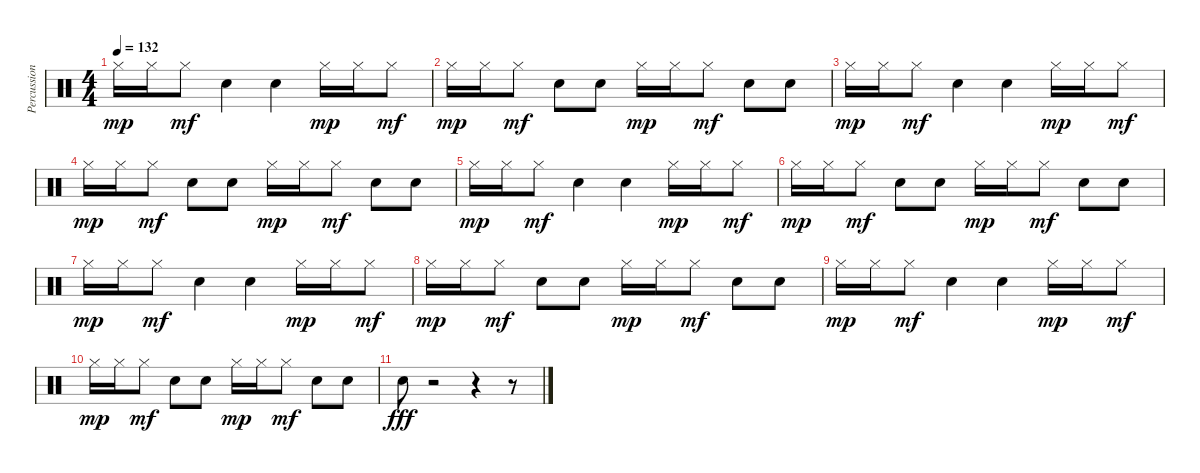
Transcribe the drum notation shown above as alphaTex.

\track ("Percussion" "Percussion") {instrument percussion}
\staff {score}
\articulation defaults
\ts (4 4)
\tempo 132
\clef neutral
\ks c "Hi-Hat (closed)".16{dy mp} "Hi-Hat (closed)".16 "Hi-Hat (closed)".8{dy mf} "Hand Clap (hit)".4 "Hand Clap (hit)".4 "Hi-Hat (closed)".16{dy mp} "Hi-Hat (closed)".16 "Hi-Hat (closed)".8{dy mf}
|
"Hi-Hat (closed)".16{dy mp} "Hi-Hat (closed)".16 "Hi-Hat (closed)".8{dy mf} "Hand Clap (hit)".8 "Hand Clap (hit)".8 "Hi-Hat (closed)".16{dy mp} "Hi-Hat (closed)".16 "Hi-Hat (closed)".8{dy mf} "Hand Clap (hit)".8 "Hand Clap (hit)".8 |
"Hi-Hat (closed)".16{dy mp} "Hi-Hat (closed)".16 "Hi-Hat (closed)".8{dy mf} "Hand Clap (hit)".4 "Hand Clap (hit)".4 "Hi-Hat (closed)".16{dy mp} "Hi-Hat (closed)".16 "Hi-Hat (closed)".8{dy mf} |
"Hi-Hat (closed)".16{dy mp} "Hi-Hat (closed)".16 "Hi-Hat (closed)".8{dy mf} "Hand Clap (hit)".8 "Hand Clap (hit)".8 "Hi-Hat (closed)".16{dy mp} "Hi-Hat (closed)".16 "Hi-Hat (closed)".8{dy mf} "Hand Clap (hit)".8 "Hand Clap (hit)".8 |
"Hi-Hat (closed)".16{dy mp} "Hi-Hat (closed)".16 "Hi-Hat (closed)".8{dy mf} "Hand Clap (hit)".4 "Hand Clap (hit)".4 "Hi-Hat (closed)".16{dy mp} "Hi-Hat (closed)".16 "Hi-Hat (closed)".8{dy mf} |
"Hi-Hat (closed)".16{dy mp} "Hi-Hat (closed)".16 "Hi-Hat (closed)".8{dy mf} "Hand Clap (hit)".8 "Hand Clap (hit)".8 "Hi-Hat (closed)".16{dy mp} "Hi-Hat (closed)".16 "Hi-Hat (closed)".8{dy mf} "Hand Clap (hit)".8 "Hand Clap (hit)".8 |
"Hi-Hat (closed)".16{dy mp} "Hi-Hat (closed)".16 "Hi-Hat (closed)".8{dy mf} "Hand Clap (hit)".4 "Hand Clap (hit)".4 "Hi-Hat (closed)".16{dy mp} "Hi-Hat (closed)".16 "Hi-Hat (closed)".8{dy mf} |
"Hi-Hat (closed)".16{dy mp} "Hi-Hat (closed)".16 "Hi-Hat (closed)".8{dy mf} "Hand Clap (hit)".8 "Hand Clap (hit)".8 "Hi-Hat (closed)".16{dy mp} "Hi-Hat (closed)".16 "Hi-Hat (closed)".8{dy mf} "Hand Clap (hit)".8 "Hand Clap (hit)".8 |
"Hi-Hat (closed)".16{dy mp} "Hi-Hat (closed)".16 "Hi-Hat (closed)".8{dy mf} "Hand Clap (hit)".4 "Hand Clap (hit)".4 "Hi-Hat (closed)".16{dy mp} "Hi-Hat (closed)".16 "Hi-Hat (closed)".8{dy mf} |
"Hi-Hat (closed)".16{dy mp} "Hi-Hat (closed)".16 "Hi-Hat (closed)".8{dy mf} "Hand Clap (hit)".8 "Hand Clap (hit)".8 "Hi-Hat (closed)".16{dy mp} "Hi-Hat (closed)".16 "Hi-Hat (closed)".8{dy mf} "Hand Clap (hit)".8 "Hand Clap (hit)".8 |
"Hand Clap (hit)".8{dy fff} r.2 r.4 r.8
